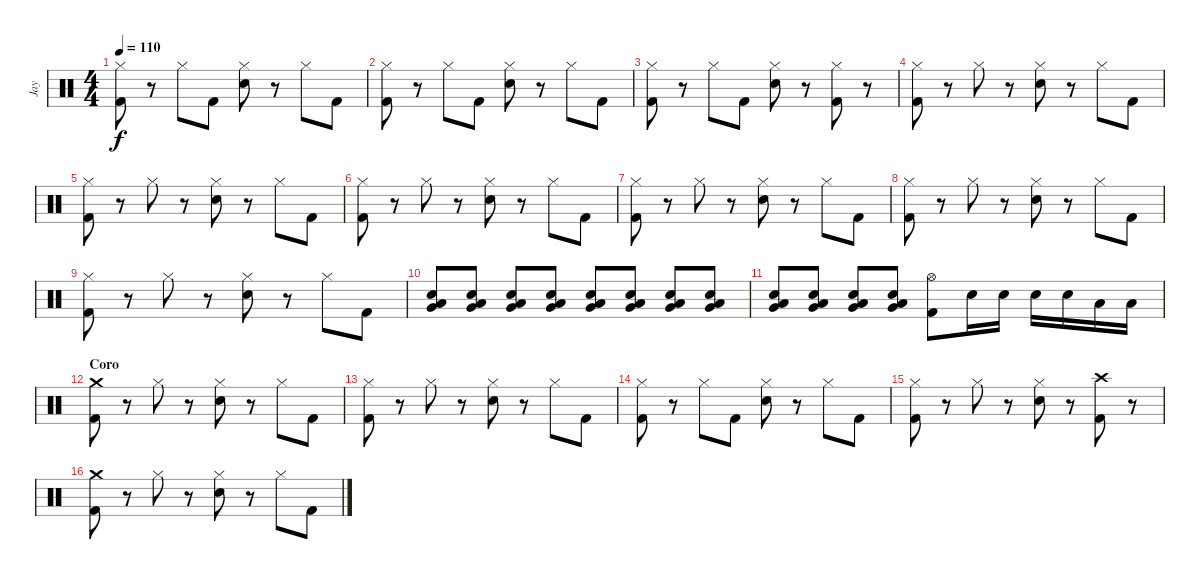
\track ("Jay" "Jay") {instrument percussion}
\staff {score}
\articulation defaults
\ts (4 4)
\tempo 110
\clef neutral
\ks c
("Hi-Hat (closed)" "Kick (hit) 2").8{dy f} r.8 "Hi-Hat (closed)".8 "Kick (hit) 2".8 ("Hi-Hat (closed)" "Snare (hit) 2").8 r.8 "Hi-Hat (closed)".8 "Kick (hit) 2".8 |
("Hi-Hat (closed)" "Kick (hit) 2").8 r.8 "Hi-Hat (closed)".8 "Kick (hit) 2".8 ("Hi-Hat (closed)" "Snare (hit) 2").8 r.8 "Hi-Hat (closed)".8 "Kick (hit) 2".8 |
("Hi-Hat (closed)" "Kick (hit) 2").8 r.8 "Hi-Hat (closed)".8 "Kick (hit) 2".8 ("Hi-Hat (closed)" "Snare (hit) 2").8 r.8 ("Hi-Hat (closed)" "Kick (hit) 2").8 r.8 |
("Hi-Hat (closed)" "Kick (hit) 2").8 r.8 "Hi-Hat (closed)".8 r.8 ("Hi-Hat (closed)" "Snare (hit) 2").8 r.8 "Hi-Hat (closed)".8 "Kick (hit) 2".8 |
("Hi-Hat (closed)" "Kick (hit) 2").8 r.8 "Hi-Hat (closed)".8 r.8 ("Hi-Hat (closed)" "Snare (hit) 2").8 r.8 "Hi-Hat (closed)".8 "Kick (hit) 2".8 |
("Hi-Hat (closed)" "Kick (hit) 2").8 r.8 "Hi-Hat (closed)".8 r.8 ("Hi-Hat (closed)" "Snare (hit) 2").8 r.8 "Hi-Hat (closed)".8 "Kick (hit) 2".8 |
("Hi-Hat (closed)" "Kick (hit) 2").8 r.8 "Hi-Hat (closed)".8 r.8 ("Hi-Hat (closed)" "Snare (hit) 2").8 r.8 "Hi-Hat (closed)".8 "Kick (hit) 2".8 |
("Hi-Hat (closed)" "Kick (hit) 2").8 r.8 "Hi-Hat (closed)".8 r.8 ("Hi-Hat (closed)" "Snare (hit) 2").8 r.8 "Hi-Hat (closed)".8 "Kick (hit) 2".8 |
("Hi-Hat (closed)" "Kick (hit) 2").8 r.8 "Hi-Hat (closed)".8 r.8 ("Hi-Hat (closed)" "Snare (hit) 2").8 r.8 "Hi-Hat (closed)".8 "Kick (hit) 2".8 |
("Low Tom (hit)" "Very Low Tom (hit)" "Snare (hit) 2").8 ("Low Tom (hit)" "Very Low Tom (hit)" "Snare (hit) 2").8 ("Low Tom (hit)" "Very Low Tom (hit)" "Snare (hit) 2").8 ("Low Tom (hit)" "Very Low Tom (hit)" "Snare (hit) 2").8 ("Low Tom (hit)" "Very Low Tom (hit)" "Snare (hit) 2").8 ("Low Tom (hit)" "Very Low Tom (hit)" "Snare (hit) 2").8 ("Low Tom (hit)" "Very Low Tom (hit)" "Snare (hit) 2").8 ("Low Tom (hit)" "Very Low Tom (hit)" "Snare (hit) 2").8 |
("Low Tom (hit)" "Very Low Tom (hit)" "Snare (hit) 2").8 ("Low Tom (hit)" "Very Low Tom (hit)" "Snare (hit) 2").8 ("Low Tom (hit)" "Very Low Tom (hit)" "Snare (hit) 2").8 ("Low Tom (hit)" "Very Low Tom (hit)" "Snare (hit) 2").8 ("Hi-Hat (open)" "Kick (hit) 2").8 "Snare (hit) 2".16 "Snare (hit) 2".16 "Snare (hit) 2".16 "Snare (hit) 2".16 "Low Tom (hit)".16 "Low Tom (hit)".16 |
\section ("" "Coro")
("Crash medium (hit)" "Kick (hit) 2").8 r.8 "Hi-Hat (closed)".8 r.8 ("Hi-Hat (closed)" "Snare (hit) 2").8 r.8 "Hi-Hat (closed)".8 "Kick (hit) 2".8 |
("Hi-Hat (closed)" "Kick (hit) 2").8 r.8 "Hi-Hat (closed)".8 r.8 ("Hi-Hat (closed)" "Snare (hit) 2").8 r.8 "Hi-Hat (closed)".8 "Kick (hit) 2".8 |
("Hi-Hat (closed)" "Kick (hit) 2").8 r.8 "Hi-Hat (closed)".8 "Kick (hit) 2".8 ("Hi-Hat (closed)" "Snare (hit) 2").8 r.8 "Hi-Hat (closed)".8 "Kick (hit) 2".8 |
("Hi-Hat (closed)" "Kick (hit) 2").8 r.8 "Hi-Hat (closed)".8 r.8 ("Hi-Hat (closed)" "Snare (hit) 2").8 r.8 ("Crash high (hit)" "Kick (hit) 2").8 r.8 |
("Crash medium (hit)" "Kick (hit) 2").8 r.8 "Hi-Hat (closed)".8 r.8 ("Hi-Hat (closed)" "Snare (hit) 2").8 r.8 "Hi-Hat (closed)".8 "Kick (hit) 2".8
